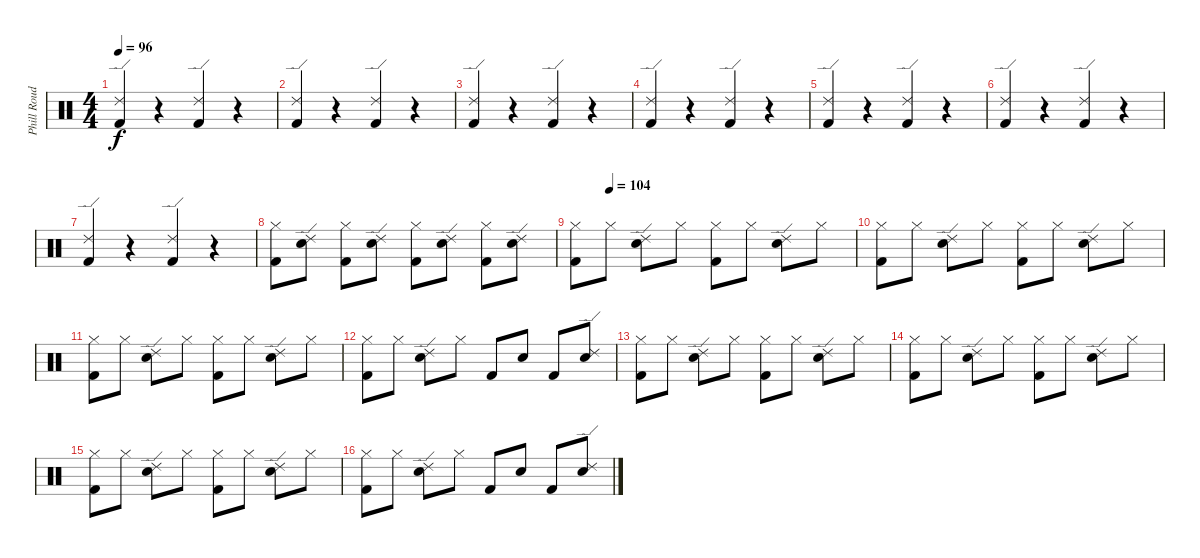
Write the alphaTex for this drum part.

\track ("Phill Roud" "Phill Roud") {instrument percussion}
\staff {score}
\articulation defaults
\ts (4 4)
\tempo 96
\clef neutral
\ks c
("Kick (hit) 2" "Ride (edge) 2").4{dy f} r.4 ("Kick (hit) 2" "Ride (edge) 2").4 r.4 |
("Kick (hit) 2" "Ride (edge) 2").4 r.4 ("Kick (hit) 2" "Ride (edge) 2").4 r.4 |
("Kick (hit) 2" "Ride (edge) 2").4 r.4 ("Kick (hit) 2" "Ride (edge) 2").4 r.4 |
("Kick (hit) 2" "Ride (edge) 2").4 r.4 ("Kick (hit) 2" "Ride (edge) 2").4 r.4 |
("Kick (hit) 2" "Ride (edge) 2").4 r.4 ("Kick (hit) 2" "Ride (edge) 2").4 r.4 |
("Kick (hit) 2" "Ride (edge) 2").4 r.4 ("Kick (hit) 2" "Ride (edge) 2").4 r.4 |
("Kick (hit) 2" "Ride (edge) 2").4 r.4 ("Kick (hit) 2" "Ride (edge) 2").4 r.4 |
("Hi-Hat (closed)" "Kick (hit) 2").8 ("Snare (hit) 2" "Ride (edge) 2").8 ("Hi-Hat (closed)" "Kick (hit) 2").8 ("Snare (hit) 2" "Ride (edge) 2").8 ("Hi-Hat (closed)" "Kick (hit) 2").8 ("Snare (hit) 2" "Ride (edge) 2").8 ("Hi-Hat (closed)" "Kick (hit) 2").8 ("Snare (hit) 2" "Ride (edge) 2").8 |
\tempo (104 0.125)
("Hi-Hat (closed)" "Kick (hit) 2").8 "Hi-Hat (closed)".8 ("Snare (hit) 2" "Ride (edge) 2").8 "Hi-Hat (closed)".8 ("Hi-Hat (closed)" "Kick (hit) 2").8 "Hi-Hat (closed)".8 ("Snare (hit) 2" "Ride (edge) 2").8 "Hi-Hat (closed)".8 |
("Hi-Hat (closed)" "Kick (hit) 2").8 "Hi-Hat (closed)".8 ("Snare (hit) 2" "Ride (edge) 2").8 "Hi-Hat (closed)".8 ("Hi-Hat (closed)" "Kick (hit) 2").8 "Hi-Hat (closed)".8 ("Snare (hit) 2" "Ride (edge) 2").8 "Hi-Hat (closed)".8 |
("Hi-Hat (closed)" "Kick (hit) 2").8 "Hi-Hat (closed)".8 ("Snare (hit) 2" "Ride (edge) 2").8 "Hi-Hat (closed)".8 ("Hi-Hat (closed)" "Kick (hit) 2").8 "Hi-Hat (closed)".8 ("Snare (hit) 2" "Ride (edge) 2").8 "Hi-Hat (closed)".8 |
("Hi-Hat (closed)" "Kick (hit) 2").8 "Hi-Hat (closed)".8 ("Snare (hit) 2" "Ride (edge) 2").8 "Hi-Hat (closed)".8 "Kick (hit) 2".8 "Snare (hit) 2".8 "Kick (hit) 2".8 ("Snare (hit) 2" "Ride (edge) 2").8 |
("Hi-Hat (closed)" "Kick (hit) 2").8 "Hi-Hat (closed)".8 ("Snare (hit) 2" "Ride (edge) 2").8 "Hi-Hat (closed)".8 ("Hi-Hat (closed)" "Kick (hit) 2").8 "Hi-Hat (closed)".8 ("Snare (hit) 2" "Ride (edge) 2").8 "Hi-Hat (closed)".8 |
("Hi-Hat (closed)" "Kick (hit) 2").8 "Hi-Hat (closed)".8 ("Snare (hit) 2" "Ride (edge) 2").8 "Hi-Hat (closed)".8 ("Hi-Hat (closed)" "Kick (hit) 2").8 "Hi-Hat (closed)".8 ("Snare (hit) 2" "Ride (edge) 2").8 "Hi-Hat (closed)".8 |
("Hi-Hat (closed)" "Kick (hit) 2").8 "Hi-Hat (closed)".8 ("Snare (hit) 2" "Ride (edge) 2").8 "Hi-Hat (closed)".8 ("Hi-Hat (closed)" "Kick (hit) 2").8 "Hi-Hat (closed)".8 ("Snare (hit) 2" "Ride (edge) 2").8 "Hi-Hat (closed)".8 |
("Hi-Hat (closed)" "Kick (hit) 2").8 "Hi-Hat (closed)".8 ("Snare (hit) 2" "Ride (edge) 2").8 "Hi-Hat (closed)".8 "Kick (hit) 2".8 "Snare (hit) 2".8 "Kick (hit) 2".8 ("Snare (hit) 2" "Ride (edge) 2").8
